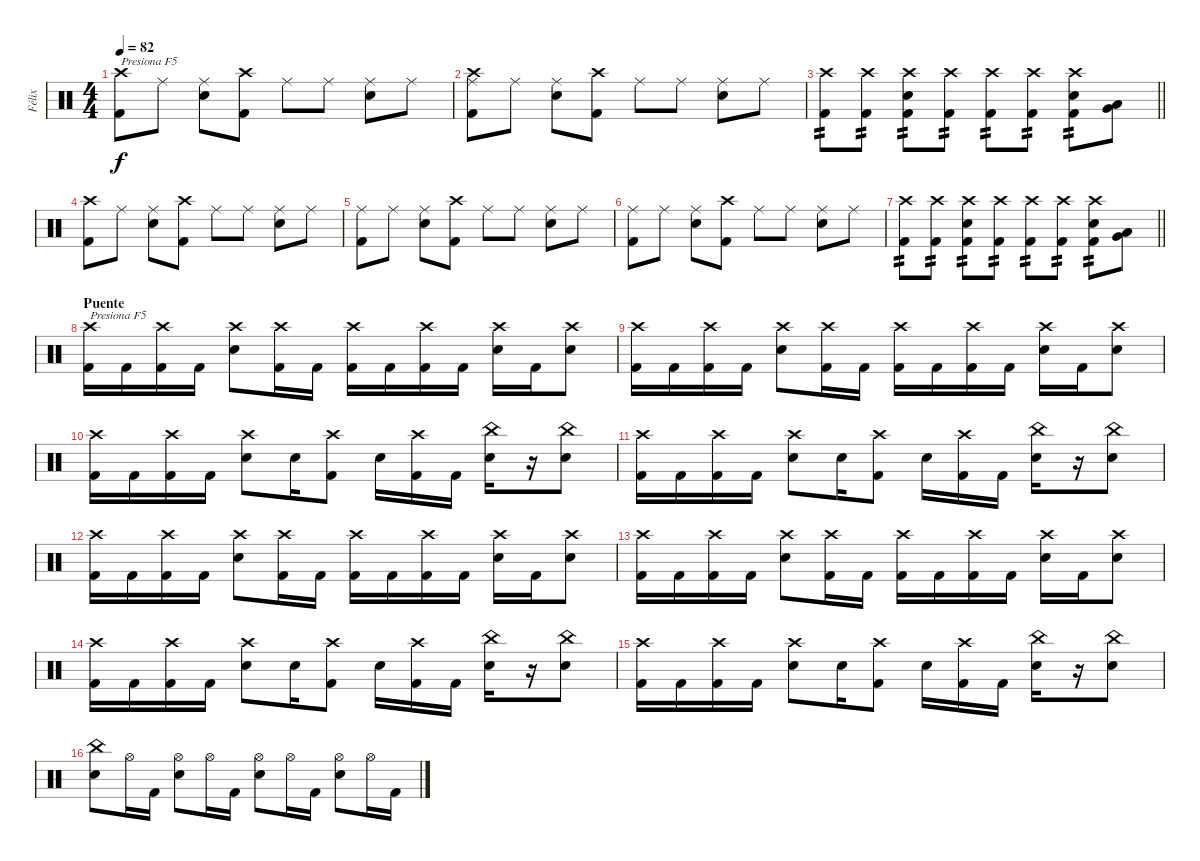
\track ("Félix" "Félix") {instrument percussion}
\staff {score}
\articulation defaults
\ts (4 4)
\tempo 82
\clef neutral
\ks c
("Crash high (hit)" "Kick (hit) 2").8{txt "Presiona F5" dy f} "Ride (middle)".8 ("Ride (middle)" "Snare (hit) 2").8 ("Crash high (hit)" "Kick (hit) 2").8 "Ride (middle)".8 "Ride (middle)".8 ("Ride (middle)" "Snare (hit) 2").8 "Ride (middle)".8 |
("Crash high (hit)" "Ride (middle)" "Kick (hit) 2").8 "Ride (middle)".8 ("Ride (middle)" "Snare (hit) 2").8 ("Crash high (hit)" "Kick (hit) 2").8 "Ride (middle)".8 "Ride (middle)".8 ("Ride (middle)" "Snare (hit) 2").8 "Ride (middle)".8 |
\barLineRight lightlight
("Crash high (hit)" "Kick (hit) 2").8{tp 2} ("Crash high (hit)" "Kick (hit) 2").8{tp 2} ("Crash high (hit)" "Snare (hit) 2" "Kick (hit) 2").8{tp 2} ("Crash high (hit)" "Kick (hit) 2").8{tp 2} ("Crash high (hit)" "Kick (hit) 2").8{tp 2} ("Crash high (hit)" "Kick (hit) 2").8{tp 2} ("Crash high (hit)" "Snare (hit) 2" "Kick (hit) 2").8{tp 2} ("Very Low Tom (hit)" "Low Floor Tom (hit)").8 |
("Crash high (hit)" "Kick (hit) 2").8 "Ride (middle)".8 ("Ride (middle)" "Snare (hit) 2").8 ("Crash high (hit)" "Kick (hit) 2").8 "Ride (middle)".8 "Ride (middle)".8 ("Ride (middle)" "Snare (hit) 2").8 "Ride (middle)".8 |
("Ride (middle)" "Kick (hit) 2").8 "Ride (middle)".8 ("Ride (middle)" "Snare (hit) 2").8 ("Crash high (hit)" "Kick (hit) 2").8 "Ride (middle)".8 "Ride (middle)".8 ("Ride (middle)" "Snare (hit) 2").8 "Ride (middle)".8 |
("Ride (middle)" "Kick (hit) 2").8 "Ride (middle)".8 ("Ride (middle)" "Snare (hit) 2").8 ("Crash high (hit)" "Kick (hit) 2").8 "Ride (middle)".8 "Ride (middle)".8 ("Ride (middle)" "Snare (hit) 2").8 "Ride (middle)".8 |
\barLineRight lightlight
("Crash high (hit)" "Kick (hit) 2").8{tp 2} ("Crash high (hit)" "Kick (hit) 2").8{tp 2} ("Crash high (hit)" "Snare (hit) 2" "Kick (hit) 2").8{tp 2} ("Crash high (hit)" "Kick (hit) 2").8{tp 2} ("Crash high (hit)" "Kick (hit) 2").8{tp 2} ("Crash high (hit)" "Kick (hit) 2").8{tp 2} ("Crash high (hit)" "Snare (hit) 2" "Kick (hit) 2").8{tp 2} ("Very Low Tom (hit)" "Low Floor Tom (hit)").8 |
\section ("" "Puente")
("Crash high (hit)" "Kick (hit) 2").16{txt "Presiona F5"} "Kick (hit) 2".16 ("Crash high (hit)" "Kick (hit) 2").16 "Kick (hit) 2".16 ("Crash high (hit)" "Snare (hit) 2").8 ("Crash high (hit)" "Kick (hit) 2").16 "Kick (hit) 2".16 ("Crash high (hit)" "Kick (hit) 2").16 "Kick (hit) 2".16 ("Crash high (hit)" "Kick (hit) 2").16 "Kick (hit) 2".16 ("Crash high (hit)" "Snare (hit) 2").16 "Kick (hit) 2".16 ("Crash high (hit)" "Snare (hit) 2").8 |
("Crash high (hit)" "Kick (hit) 2").16 "Kick (hit) 2".16 ("Crash high (hit)" "Kick (hit) 2").16 "Kick (hit) 2".16 ("Crash high (hit)" "Snare (hit) 2").8 ("Crash high (hit)" "Kick (hit) 2").16 "Kick (hit) 2".16 ("Crash high (hit)" "Kick (hit) 2").16 "Kick (hit) 2".16 ("Crash high (hit)" "Kick (hit) 2").16 "Kick (hit) 2".16 ("Crash high (hit)" "Snare (hit) 2").16 "Kick (hit) 2".16 ("Crash high (hit)" "Snare (hit) 2").8 |
("Crash high (hit)" "Kick (hit) 2").16 "Kick (hit) 2".16 ("Crash high (hit)" "Kick (hit) 2").16 "Kick (hit) 2".16 ("Crash high (hit)" "Snare (hit) 2").8 "Snare (hit) 2".16 ("Crash high (hit)" "Kick (hit) 2").8 "Snare (hit) 2".16 ("Crash high (hit)" "Kick (hit) 2").16 "Kick (hit) 2".16 ("China (hit)" "Snare (hit) 2").16 r.16 ("China (hit)" "Snare (hit) 2").8 |
("Crash high (hit)" "Kick (hit) 2").16 "Kick (hit) 2".16 ("Crash high (hit)" "Kick (hit) 2").16 "Kick (hit) 2".16 ("Crash high (hit)" "Snare (hit) 2").8 "Snare (hit) 2".16 ("Crash high (hit)" "Kick (hit) 2").8 "Snare (hit) 2".16 ("Crash high (hit)" "Kick (hit) 2").16 "Kick (hit) 2".16 ("China (hit)" "Snare (hit) 2").16 r.16 ("China (hit)" "Snare (hit) 2").8 |
("Crash high (hit)" "Kick (hit) 2").16 "Kick (hit) 2".16 ("Crash high (hit)" "Kick (hit) 2").16 "Kick (hit) 2".16 ("Crash high (hit)" "Snare (hit) 2").8 ("Crash high (hit)" "Kick (hit) 2").16 "Kick (hit) 2".16 ("Crash high (hit)" "Kick (hit) 2").16 "Kick (hit) 2".16 ("Crash high (hit)" "Kick (hit) 2").16 "Kick (hit) 2".16 ("Crash high (hit)" "Snare (hit) 2").16 "Kick (hit) 2".16 ("Crash high (hit)" "Snare (hit) 2").8 |
("Crash high (hit)" "Kick (hit) 2").16 "Kick (hit) 2".16 ("Crash high (hit)" "Kick (hit) 2").16 "Kick (hit) 2".16 ("Crash high (hit)" "Snare (hit) 2").8 ("Crash high (hit)" "Kick (hit) 2").16 "Kick (hit) 2".16 ("Crash high (hit)" "Kick (hit) 2").16 "Kick (hit) 2".16 ("Crash high (hit)" "Kick (hit) 2").16 "Kick (hit) 2".16 ("Crash high (hit)" "Snare (hit) 2").16 "Kick (hit) 2".16 ("Crash high (hit)" "Snare (hit) 2").8 |
("Crash high (hit)" "Kick (hit) 2").16 "Kick (hit) 2".16 ("Crash high (hit)" "Kick (hit) 2").16 "Kick (hit) 2".16 ("Crash high (hit)" "Snare (hit) 2").8 "Snare (hit) 2".16 ("Crash high (hit)" "Kick (hit) 2").8 "Snare (hit) 2".16 ("Crash high (hit)" "Kick (hit) 2").16 "Kick (hit) 2".16 ("China (hit)" "Snare (hit) 2").16 r.16 ("China (hit)" "Snare (hit) 2").8 |
("Crash high (hit)" "Kick (hit) 2").16 "Kick (hit) 2".16 ("Crash high (hit)" "Kick (hit) 2").16 "Kick (hit) 2".16 ("Crash high (hit)" "Snare (hit) 2").8 "Snare (hit) 2".16 ("Crash high (hit)" "Kick (hit) 2").8 "Snare (hit) 2".16 ("Crash high (hit)" "Kick (hit) 2").16 "Kick (hit) 2".16 ("China (hit)" "Snare (hit) 2").16 r.16 ("China (hit)" "Snare (hit) 2").8 |
("China (hit)" "Snare (hit) 2").8 "Hi-Hat (open)".16 "Kick (hit) 2".16 ("Hi-Hat (open)" "Snare (hit) 2").8 "Hi-Hat (open)".16 "Kick (hit) 2".16 ("Hi-Hat (open)" "Snare (hit) 2").8 "Hi-Hat (open)".16 "Kick (hit) 2".16 ("Hi-Hat (open)" "Snare (hit) 2").8 "Hi-Hat (open)".16 "Kick (hit) 2".16
